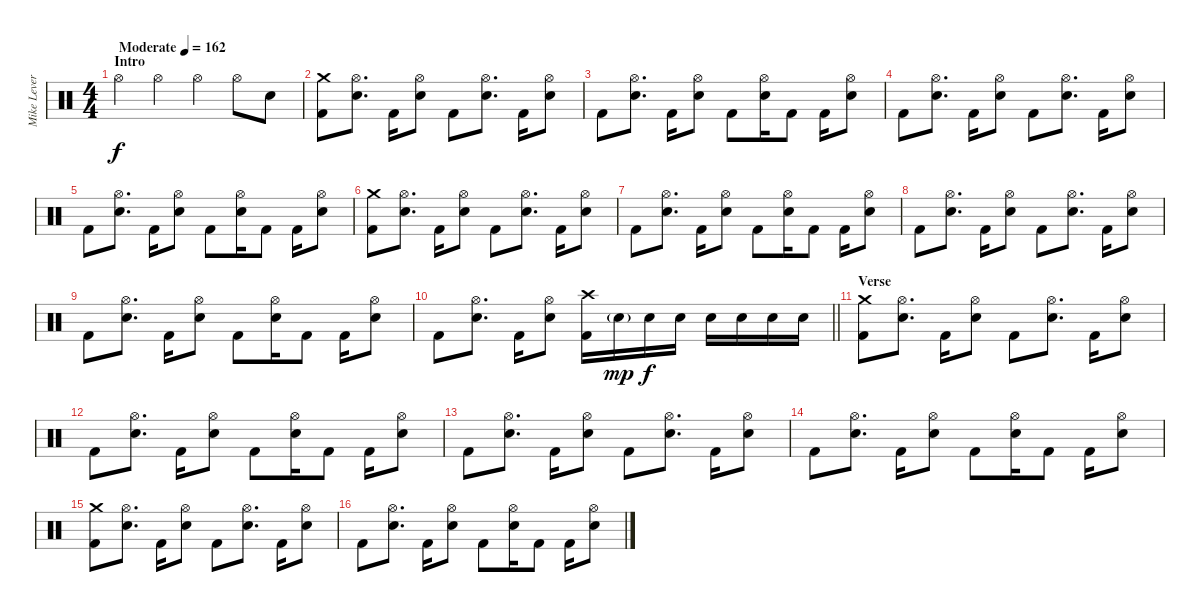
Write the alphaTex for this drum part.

\track ("Mike Leverence - Drums" "Mike Lever") {instrument percussion}
\staff {score}
\articulation defaults
\ts (4 4)
\section ("" "Intro")
\tempo (162 "Moderate")
\clef neutral
\ks c "Hi-Hat (open)".4{dy f} "Hi-Hat (open)".4 "Hi-Hat (open)".4 "Hi-Hat (open)".8 "Electric Snare (hit)".8
|
("Crash medium (hit)" "Kick (hit) 2").8 ("Hi-Hat (open)" "Electric Snare (hit)").8{d} "Kick (hit) 2".16 ("Hi-Hat (open)" "Electric Snare (hit)").8 "Kick (hit) 2".8 ("Hi-Hat (open)" "Electric Snare (hit)").8{d} "Kick (hit) 2".16 ("Hi-Hat (open)" "Electric Snare (hit)").8 |
"Kick (hit) 2".8 ("Hi-Hat (open)" "Electric Snare (hit)").8{d} "Kick (hit) 2".16 ("Hi-Hat (open)" "Electric Snare (hit)").8 "Kick (hit) 2".8 ("Hi-Hat (open)" "Electric Snare (hit)").16 "Kick (hit) 2".8 "Kick (hit) 2".16 ("Hi-Hat (open)" "Electric Snare (hit)").8 |
"Kick (hit) 2".8 ("Hi-Hat (open)" "Electric Snare (hit)").8{d} "Kick (hit) 2".16 ("Hi-Hat (open)" "Electric Snare (hit)").8 "Kick (hit) 2".8 ("Hi-Hat (open)" "Electric Snare (hit)").8{d} "Kick (hit) 2".16 ("Hi-Hat (open)" "Electric Snare (hit)").8 |
"Kick (hit) 2".8 ("Hi-Hat (open)" "Electric Snare (hit)").8{d} "Kick (hit) 2".16 ("Hi-Hat (open)" "Electric Snare (hit)").8 "Kick (hit) 2".8 ("Hi-Hat (open)" "Electric Snare (hit)").16 "Kick (hit) 2".8 "Kick (hit) 2".16 ("Hi-Hat (open)" "Electric Snare (hit)").8 |
("Crash medium (hit)" "Kick (hit) 2").8 ("Hi-Hat (open)" "Electric Snare (hit)").8{d} "Kick (hit) 2".16 ("Hi-Hat (open)" "Electric Snare (hit)").8 "Kick (hit) 2".8 ("Hi-Hat (open)" "Electric Snare (hit)").8{d} "Kick (hit) 2".16 ("Hi-Hat (open)" "Electric Snare (hit)").8 |
"Kick (hit) 2".8 ("Hi-Hat (open)" "Electric Snare (hit)").8{d} "Kick (hit) 2".16 ("Hi-Hat (open)" "Electric Snare (hit)").8 "Kick (hit) 2".8 ("Hi-Hat (open)" "Electric Snare (hit)").16 "Kick (hit) 2".8 "Kick (hit) 2".16 ("Hi-Hat (open)" "Electric Snare (hit)").8 |
"Kick (hit) 2".8 ("Hi-Hat (open)" "Electric Snare (hit)").8{d} "Kick (hit) 2".16 ("Hi-Hat (open)" "Electric Snare (hit)").8 "Kick (hit) 2".8 ("Hi-Hat (open)" "Electric Snare (hit)").8{d} "Kick (hit) 2".16 ("Hi-Hat (open)" "Electric Snare (hit)").8 |
"Kick (hit) 2".8 ("Hi-Hat (open)" "Electric Snare (hit)").8{d} "Kick (hit) 2".16 ("Hi-Hat (open)" "Electric Snare (hit)").8 "Kick (hit) 2".8 ("Hi-Hat (open)" "Electric Snare (hit)").16 "Kick (hit) 2".8 "Kick (hit) 2".16 ("Hi-Hat (open)" "Electric Snare (hit)").8 |
\barLineRight lightlight "Kick (hit) 2".8
("Hi-Hat (open)" "Electric Snare (hit)").8{d} "Kick (hit) 2".16 ("Hi-Hat (open)" "Electric Snare (hit)").8 ("Crash high (hit)" "Kick (hit) 2").16 "Electric Snare (hit)"{g}.16{dy mp} "Electric Snare (hit)".16{dy f} "Electric Snare (hit)".16 "Electric Snare (hit)".16 "Electric Snare (hit)".16 "Electric Snare (hit)".16 "Electric Snare (hit)".16 |
\section ("" "Verse")
("Crash medium (hit)" "Kick (hit) 2").8 ("Hi-Hat (open)" "Electric Snare (hit)").8{d} "Kick (hit) 2".16 ("Hi-Hat (open)" "Electric Snare (hit)").8 "Kick (hit) 2".8 ("Hi-Hat (open)" "Electric Snare (hit)").8{d} "Kick (hit) 2".16 ("Hi-Hat (open)" "Electric Snare (hit)").8 |
"Kick (hit) 2".8 ("Hi-Hat (open)" "Electric Snare (hit)").8{d} "Kick (hit) 2".16 ("Hi-Hat (open)" "Electric Snare (hit)").8 "Kick (hit) 2".8 ("Hi-Hat (open)" "Electric Snare (hit)").16 "Kick (hit) 2".8 "Kick (hit) 2".16 ("Hi-Hat (open)" "Electric Snare (hit)").8 |
"Kick (hit) 2".8 ("Hi-Hat (open)" "Electric Snare (hit)").8{d} "Kick (hit) 2".16 ("Hi-Hat (open)" "Electric Snare (hit)").8 "Kick (hit) 2".8 ("Hi-Hat (open)" "Electric Snare (hit)").8{d} "Kick (hit) 2".16 ("Hi-Hat (open)" "Electric Snare (hit)").8 |
"Kick (hit) 2".8 ("Hi-Hat (open)" "Electric Snare (hit)").8{d} "Kick (hit) 2".16 ("Hi-Hat (open)" "Electric Snare (hit)").8 "Kick (hit) 2".8 ("Hi-Hat (open)" "Electric Snare (hit)").16 "Kick (hit) 2".8 "Kick (hit) 2".16 ("Hi-Hat (open)" "Electric Snare (hit)").8 |
("Crash medium (hit)" "Kick (hit) 2").8 ("Hi-Hat (open)" "Electric Snare (hit)").8{d} "Kick (hit) 2".16 ("Hi-Hat (open)" "Electric Snare (hit)").8 "Kick (hit) 2".8 ("Hi-Hat (open)" "Electric Snare (hit)").8{d} "Kick (hit) 2".16 ("Hi-Hat (open)" "Electric Snare (hit)").8 |
"Kick (hit) 2".8 ("Hi-Hat (open)" "Electric Snare (hit)").8{d} "Kick (hit) 2".16 ("Hi-Hat (open)" "Electric Snare (hit)").8 "Kick (hit) 2".8 ("Hi-Hat (open)" "Electric Snare (hit)").16 "Kick (hit) 2".8 "Kick (hit) 2".16 ("Hi-Hat (open)" "Electric Snare (hit)").8
